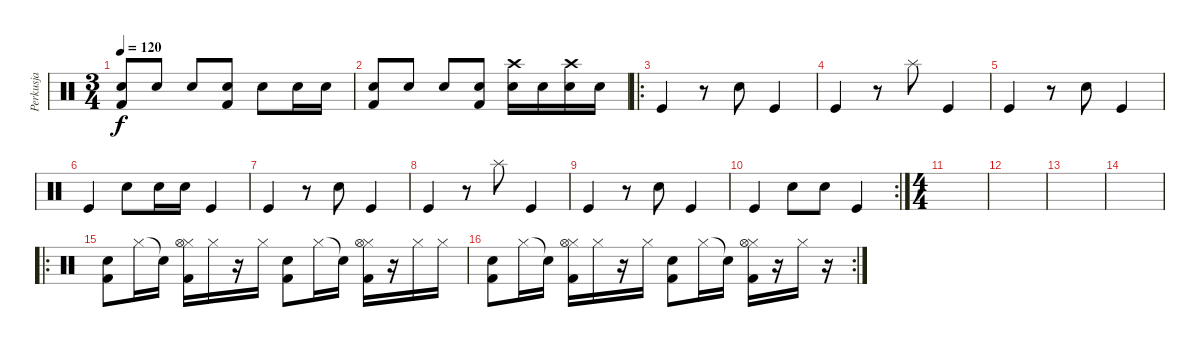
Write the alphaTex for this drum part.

\track ("Perkusja" "Perkusja") {instrument percussion}
\staff {score}
\articulation defaults
\ts (3 4)
\tempo 120
\clef neutral
\ks c
("Snare (hit) 2" "Kick (hit) 2").8{dy f} "Electric Snare (hit)".8 "Electric Snare (hit)".8 ("Snare (hit) 2" "Kick (hit) 2").8 "Electric Snare (hit)".8 "Electric Snare (hit)".16 "Electric Snare (hit)".16 |
("Snare (hit) 2" "Kick (hit) 2").8 "Electric Snare (hit)".8 "Electric Snare (hit)".8 ("Snare (hit) 2" "Kick (hit) 2").8 ("Crash high (hit)" "Electric Snare (hit)").16 "Electric Snare (hit)".16 ("Crash high (hit)" "Electric Snare (hit)").16 "Electric Snare (hit)".16 |
\ro "Kick (hit)".4
r.8 "Electric Snare (hit)".8 "Kick (hit)".4 |
"Kick (hit)".4 r.8 "Splash (hit)".8 "Kick (hit)".4 |
"Kick (hit)".4 r.8 "Electric Snare (hit)".8 "Kick (hit)".4 |
"Kick (hit)".4 "Electric Snare (hit)".8 "Electric Snare (hit)".16 "Electric Snare (hit)".16 "Kick (hit)".4 |
"Kick (hit)".4 r.8 "Electric Snare (hit)".8 "Kick (hit)".4 |
"Kick (hit)".4 r.8 "Splash (hit)".8 "Kick (hit)".4 |
"Kick (hit)".4 r.8 "Electric Snare (hit)".8 "Kick (hit)".4 |
\rc 2 "Kick (hit)".4 "Electric Snare (hit)".8 "Electric Snare (hit)".8 "Kick (hit)".4
|
\ts (4 4)
|
|
|
|
\ro
("Snare (hit) 2" "Kick (hit) 2").8 "Hi-Hat (closed)".16 "Snare (hit)"{t}.16 ("Hi-Hat (closed)" "Hi-Hat (open)" "Kick (hit) 2").16 "Hi-Hat (closed)".16 r.16 "Hi-Hat (closed)".16 ("Snare (hit) 2" "Kick (hit) 2").8 "Hi-Hat (closed)".16 "Snare (hit)"{t}.16 ("Hi-Hat (closed)" "Hi-Hat (open)" "Kick (hit) 2").16 r.16 "Hi-Hat (closed)".16 "Hi-Hat (closed)".16 |
\rc 2
("Snare (hit) 2" "Kick (hit) 2").8 "Hi-Hat (closed)".16 "Snare (hit)"{t}.16 ("Hi-Hat (closed)" "Hi-Hat (open)" "Kick (hit) 2").16 "Hi-Hat (closed)".16 r.16 "Hi-Hat (closed)".16 ("Snare (hit) 2" "Kick (hit) 2").8 "Hi-Hat (closed)".16 "Snare (hit)"{t}.16 ("Hi-Hat (closed)" "Hi-Hat (open)" "Kick (hit) 2").16 r.16 "Hi-Hat (closed)".16 r.16
